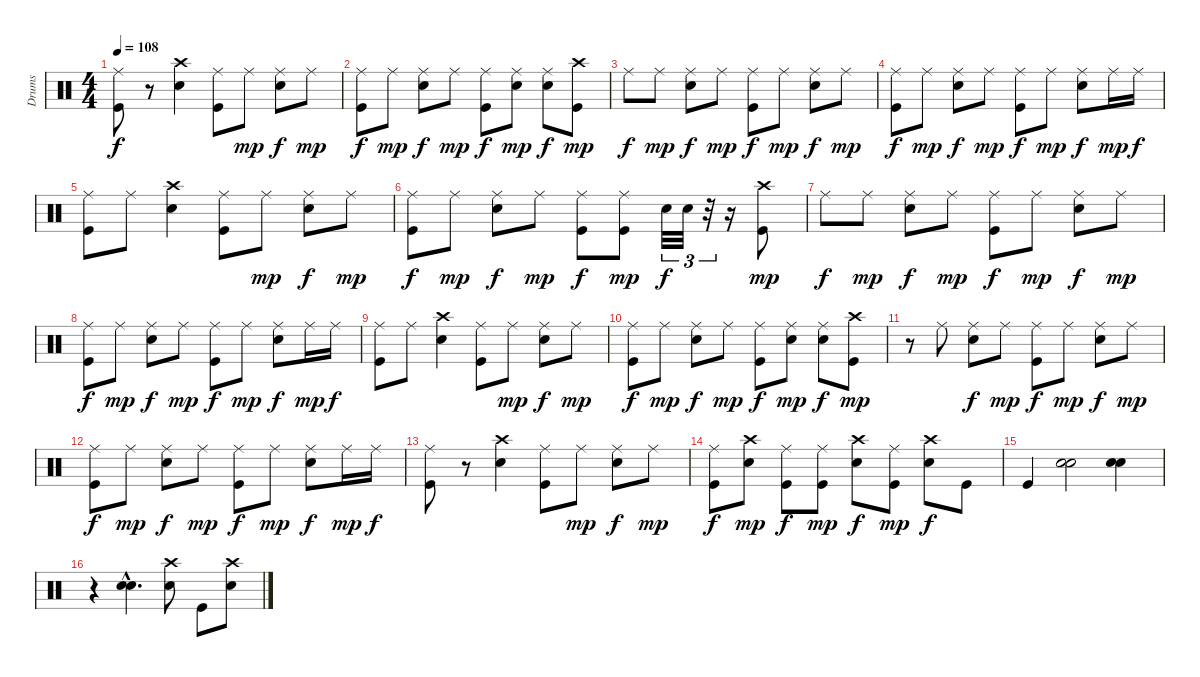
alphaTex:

\track ("Drums" "Drums") {instrument percussion}
\staff {score}
\articulation defaults
\ts (4 4)
\tempo 108
\clef neutral
\ks c
("Ride (middle)" "Kick (hit)").8{dy f} r.8 ("Crash high (hit)" "Snare (hit) 2").4 ("Ride (middle)" "Kick (hit)").8 "Ride (middle)".8{dy mp} ("Ride (middle)" "Snare (hit) 2").8{dy f} "Ride (middle)".8{dy mp} |
("Ride (middle)" "Kick (hit)").8{dy f} "Ride (middle)".8{dy mp} ("Ride (middle)" "Snare (hit) 2").8{dy f} "Ride (middle)".8{dy mp} ("Ride (middle)" "Kick (hit)").8{dy f} ("Ride (middle)" "Snare (hit) 2").8{dy mp} ("Ride (middle)" "Snare (hit) 2").8{dy f} ("Crash high (hit)" "Kick (hit)").8{dy mp} |
"Ride (middle)".8{dy f} "Ride (middle)".8{dy mp} ("Ride (middle)" "Snare (hit) 2").8{dy f} "Ride (middle)".8{dy mp} ("Ride (middle)" "Kick (hit)").8{dy f} "Ride (middle)".8{dy mp} ("Ride (middle)" "Snare (hit) 2").8{dy f} "Ride (middle)".8{dy mp} |
("Ride (middle)" "Kick (hit)").8{dy f} "Ride (middle)".8{dy mp} ("Ride (middle)" "Snare (hit) 2").8{dy f} "Ride (middle)".8{dy mp} ("Ride (middle)" "Kick (hit)").8{dy f} "Ride (middle)".8{dy mp} ("Ride (middle)" "Snare (hit) 2").8{dy f} "Ride (middle)".16{dy mp} "Ride (middle)".16{dy f} |
("Ride (middle)" "Kick (hit)").8 "Ride (middle)".8 ("Crash high (hit)" "Snare (hit) 2").4 ("Ride (middle)" "Kick (hit)").8 "Ride (middle)".8{dy mp} ("Ride (middle)" "Snare (hit) 2").8{dy f} "Ride (middle)".8{dy mp} |
("Ride (middle)" "Kick (hit)").8{dy f} "Ride (middle)".8{dy mp} ("Ride (middle)" "Snare (hit) 2").8{dy f} "Ride (middle)".8{dy mp} ("Ride (middle)" "Kick (hit)").8{dy f} ("Ride (middle)" "Kick (hit)").8{dy mp} "Snare (hit) 2".32{tu (3 2) dy f} "Snare (hit) 2".32{tu (3 2)} r.32{tu (3 2)} r.16 ("Crash high (hit)" "Kick (hit)").8{dy mp} |
"Ride (middle)".8{dy f} "Ride (middle)".8{dy mp} ("Ride (middle)" "Snare (hit) 2").8{dy f} "Ride (middle)".8{dy mp} ("Ride (middle)" "Kick (hit)").8{dy f} "Ride (middle)".8{dy mp} ("Ride (middle)" "Snare (hit) 2").8{dy f} "Ride (middle)".8{dy mp} |
("Ride (middle)" "Kick (hit)").8{dy f} "Ride (middle)".8{dy mp} ("Ride (middle)" "Snare (hit) 2").8{dy f} "Ride (middle)".8{dy mp} ("Ride (middle)" "Kick (hit)").8{dy f} "Ride (middle)".8{dy mp} ("Ride (middle)" "Snare (hit) 2").8{dy f} "Ride (middle)".16{dy mp} "Ride (middle)".16{dy f} |
("Ride (middle)" "Kick (hit)").8 "Ride (middle)".8 ("Crash high (hit)" "Snare (hit) 2").4 ("Ride (middle)" "Kick (hit)").8 "Ride (middle)".8{dy mp} ("Ride (middle)" "Snare (hit) 2").8{dy f} "Ride (middle)".8{dy mp} |
("Ride (middle)" "Kick (hit)").8{dy f} "Ride (middle)".8{dy mp} ("Ride (middle)" "Snare (hit) 2").8{dy f} "Ride (middle)".8{dy mp} ("Ride (middle)" "Kick (hit)").8{dy f} ("Ride (middle)" "Snare (hit) 2").8{dy mp} ("Ride (middle)" "Snare (hit) 2").8{dy f} ("Crash high (hit)" "Kick (hit)").8{dy mp} |
r.8 "Ride (middle)".8 ("Ride (middle)" "Snare (hit) 2").8{dy f} "Ride (middle)".8{dy mp} ("Ride (middle)" "Kick (hit)").8{dy f} "Ride (middle)".8{dy mp} ("Ride (middle)" "Snare (hit) 2").8{dy f} "Ride (middle)".8{dy mp} |
("Ride (middle)" "Kick (hit)").8{dy f} "Ride (middle)".8{dy mp} ("Ride (middle)" "Snare (hit) 2").8{dy f} "Ride (middle)".8{dy mp} ("Ride (middle)" "Kick (hit)").8{dy f} "Ride (middle)".8{dy mp} ("Ride (middle)" "Snare (hit) 2").8{dy f} "Ride (middle)".16{dy mp} "Ride (middle)".16{dy f} |
("Ride (middle)" "Kick (hit)").8 r.8 ("Crash high (hit)" "Snare (hit) 2").4 ("Ride (middle)" "Kick (hit)").8 "Ride (middle)".8{dy mp} ("Ride (middle)" "Snare (hit) 2").8{dy f} "Ride (middle)".8{dy mp} |
("Ride (middle)" "Kick (hit)").8{dy f} ("Crash high (hit)" "Snare (hit) 2").8{dy mp} ("Ride (middle)" "Kick (hit)").8{dy f} ("Ride (middle)" "Kick (hit)").8{dy mp} ("Crash high (hit)" "Snare (hit) 2").8{dy f} ("Ride (middle)" "Kick (hit)").8{dy mp} ("Crash high (hit)" "Snare (hit) 2").8{dy f} "Kick (hit)".8 |
"Kick (hit)".4 ("Snare (hit) 2" "Electric Snare (hit)").2 ("Snare (hit) 2" "Electric Snare (hit)").4 |
r.4 ("Snare (hit) 2"{hac} "Electric Snare (hit)"{hac}).4{d} ("Crash high (hit)" "Snare (hit) 2").8 "Kick (hit)".8 ("Crash high (hit)" "Snare (hit) 2").8
